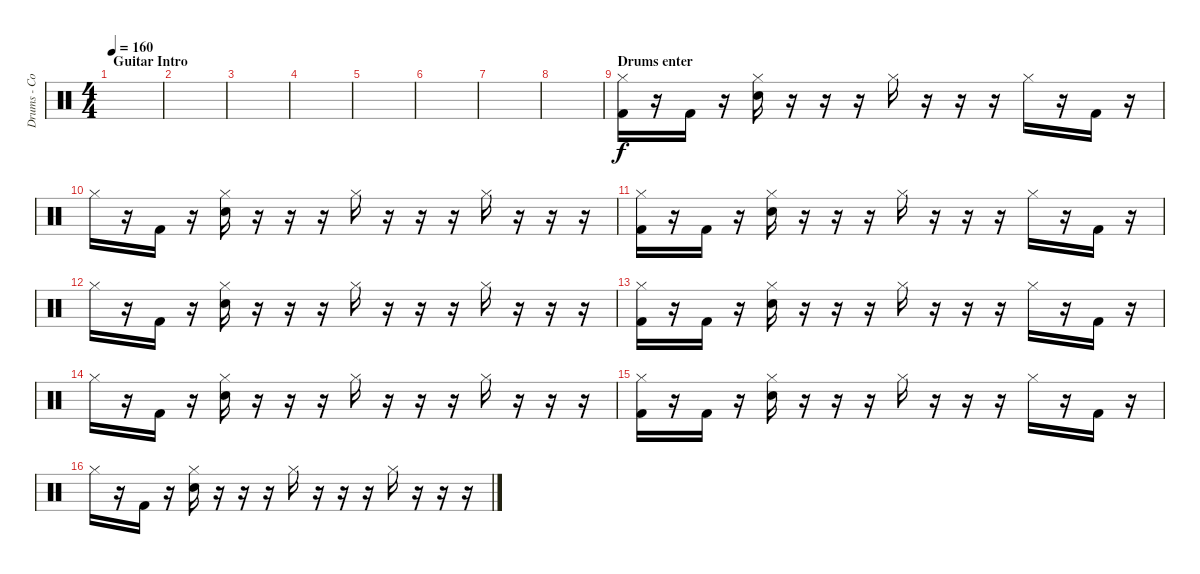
\track ("Drums - Colby" "Drums - Co") {instrument percussion}
\staff {score}
\articulation defaults
\ts (4 4)
\section ("" "Guitar Intro")
\tempo 160
\clef neutral
\ks c
|
|
|
|
|
|
|
|
\section ("" "Drums enter")
("Kick (hit) 2" "Hi-Hat (closed)").16 r.16 "Kick (hit) 2".16 r.16 ("Snare (hit) 2" "Hi-Hat (closed)").16 r.16 r.16 r.16 "Hi-Hat (closed)".16 r.16 r.16 r.16 "Hi-Hat (closed)".16 r.16 "Kick (hit) 2".16 r.16 |
"Hi-Hat (closed)".16 r.16 "Kick (hit) 2".16 r.16 ("Snare (hit) 2" "Hi-Hat (closed)").16 r.16 r.16 r.16 "Hi-Hat (closed)".16 r.16 r.16 r.16 "Hi-Hat (closed)".16 r.16 r.16 r.16 |
("Kick (hit) 2" "Hi-Hat (closed)").16 r.16 "Kick (hit) 2".16 r.16 ("Snare (hit) 2" "Hi-Hat (closed)").16 r.16 r.16 r.16 "Hi-Hat (closed)".16 r.16 r.16 r.16 "Hi-Hat (closed)".16 r.16 "Kick (hit) 2".16 r.16 |
"Hi-Hat (closed)".16 r.16 "Kick (hit) 2".16 r.16 ("Snare (hit) 2" "Hi-Hat (closed)").16 r.16 r.16 r.16 "Hi-Hat (closed)".16 r.16 r.16 r.16 "Hi-Hat (closed)".16 r.16 r.16 r.16 |
("Kick (hit) 2" "Hi-Hat (closed)").16 r.16 "Kick (hit) 2".16 r.16 ("Snare (hit) 2" "Hi-Hat (closed)").16 r.16 r.16 r.16 "Hi-Hat (closed)".16 r.16 r.16 r.16 "Hi-Hat (closed)".16 r.16 "Kick (hit) 2".16 r.16 |
"Hi-Hat (closed)".16 r.16 "Kick (hit) 2".16 r.16 ("Snare (hit) 2" "Hi-Hat (closed)").16 r.16 r.16 r.16 "Hi-Hat (closed)".16 r.16 r.16 r.16 "Hi-Hat (closed)".16 r.16 r.16 r.16 |
("Kick (hit) 2" "Hi-Hat (closed)").16 r.16 "Kick (hit) 2".16 r.16 ("Snare (hit) 2" "Hi-Hat (closed)").16 r.16 r.16 r.16 "Hi-Hat (closed)".16 r.16 r.16 r.16 "Hi-Hat (closed)".16 r.16 "Kick (hit) 2".16 r.16 |
"Hi-Hat (closed)".16 r.16 "Kick (hit) 2".16 r.16 ("Snare (hit) 2" "Hi-Hat (closed)").16 r.16 r.16 r.16 "Hi-Hat (closed)".16 r.16 r.16 r.16 "Hi-Hat (closed)".16 r.16 r.16 r.16
